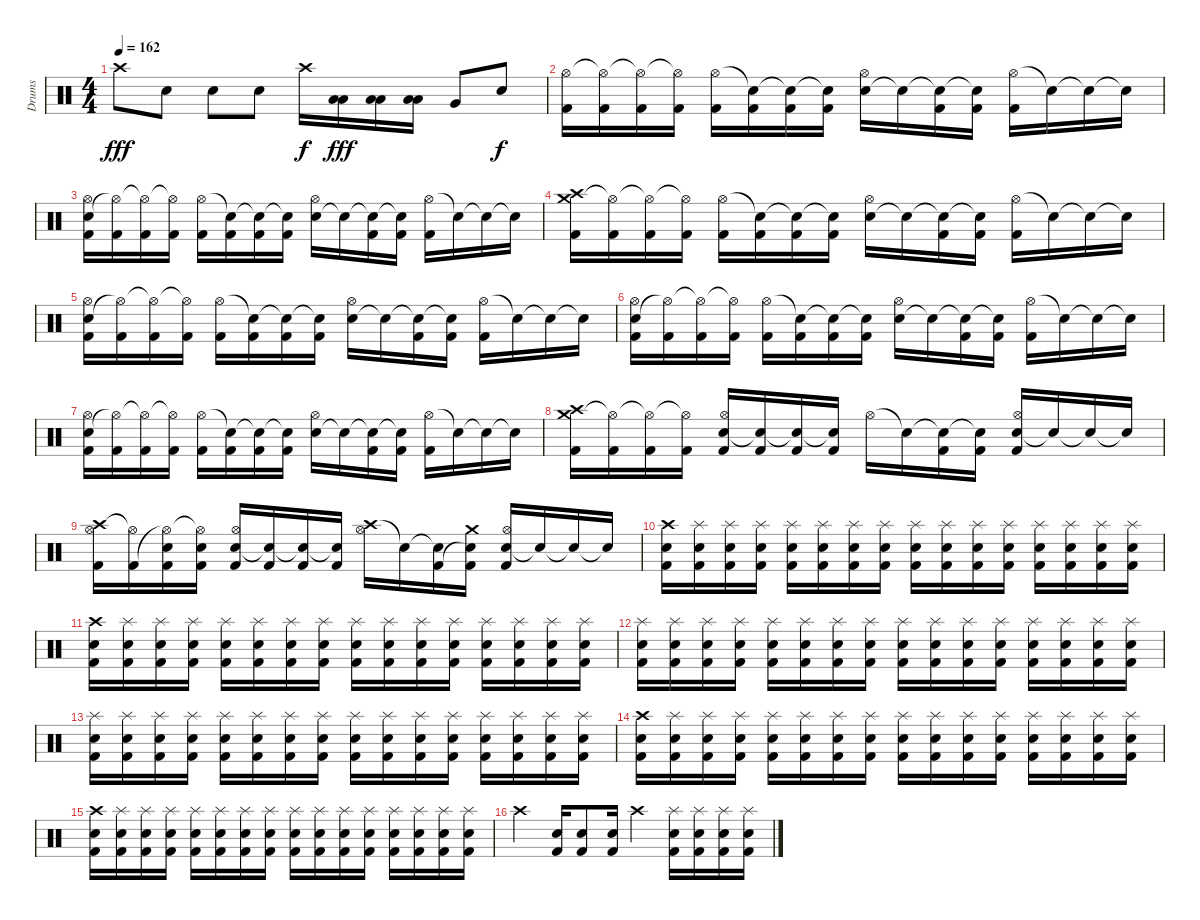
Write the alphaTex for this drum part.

\track ("Drums" "Drums") {instrument percussion}
\staff {score}
\articulation defaults
\ts (4 4)
\tempo 162
\clef neutral
\ks c "Crash high (hit)".8{dy fff} "Electric Snare (hit)".8 "Electric Snare (hit)".8 "Electric Snare (hit)".8 "Crash high (hit)".16{dy f}
("Low Tom (hit)" "Low Tom (hit)").16{dy fff} ("Low Tom (hit)" "Low Tom (hit)").16 ("Low Tom (hit)" "Low Tom (hit)").16 "Very Low Tom (hit)".8 "Electric Snare (hit)".8{dy f} |
("Hi-Hat (open)" "Kick (hit) 2").16 ("Hi-Hat (open)"{t} "Kick (hit) 2").16 ("Hi-Hat (open)"{t} "Kick (hit) 2").16 ("Hi-Hat (open)"{t} "Kick (hit) 2").16 ("Hi-Hat (open)" "Kick (hit) 2").16 ("Snare (hit)"{t} "Kick (hit) 2").16 ("Snare (hit)"{t} "Kick (hit) 2").16 ("Snare (hit)"{t} "Kick (hit) 2").16 ("Electric Snare (hit)" "Hi-Hat (open)").16 "Snare (hit)"{t}.16 ("Snare (hit)"{t} "Kick (hit) 2").16 ("Snare (hit)"{t} "Kick (hit) 2").16 ("Hi-Hat (open)" "Kick (hit) 2").16 "Snare (hit)"{t}.16 "Snare (hit)"{t}.16 "Snare (hit)"{t}.16 |
("Electric Snare (hit)" "Hi-Hat (open)" "Kick (hit) 2").16 ("Hi-Hat (open)"{t} "Kick (hit) 2").16 ("Hi-Hat (open)"{t} "Kick (hit) 2").16 ("Hi-Hat (open)"{t} "Kick (hit) 2").16 ("Hi-Hat (open)" "Kick (hit) 2").16 ("Snare (hit)"{t} "Kick (hit) 2").16 ("Snare (hit)"{t} "Kick (hit) 2").16 ("Snare (hit)"{t} "Kick (hit) 2").16 ("Electric Snare (hit)" "Hi-Hat (open)").16 "Snare (hit)"{t}.16 ("Snare (hit)"{t} "Kick (hit) 2").16 ("Snare (hit)"{t} "Kick (hit) 2").16 ("Hi-Hat (open)" "Kick (hit) 2").16 "Snare (hit)"{t}.16 "Snare (hit)"{t}.16 "Snare (hit)"{t}.16 |
("Crash medium (hit)" "Crash high (hit)" "Kick (hit) 2").16 ("Hi-Hat (open)"{t} "Kick (hit) 2").16 ("Hi-Hat (open)"{t} "Kick (hit) 2").16 ("Hi-Hat (open)"{t} "Kick (hit) 2").16 ("Hi-Hat (open)" "Kick (hit) 2").16 ("Snare (hit)"{t} "Kick (hit) 2").16 ("Snare (hit)"{t} "Kick (hit) 2").16 ("Snare (hit)"{t} "Kick (hit) 2").16 ("Electric Snare (hit)" "Hi-Hat (open)").16 "Snare (hit)"{t}.16 ("Snare (hit)"{t} "Kick (hit) 2").16 ("Snare (hit)"{t} "Kick (hit) 2").16 ("Hi-Hat (open)" "Kick (hit) 2").16 "Snare (hit)"{t}.16 "Snare (hit)"{t}.16 "Snare (hit)"{t}.16 |
("Electric Snare (hit)" "Hi-Hat (open)" "Kick (hit) 2").16 ("Hi-Hat (open)"{t} "Kick (hit) 2").16 ("Hi-Hat (open)"{t} "Kick (hit) 2").16 ("Hi-Hat (open)"{t} "Kick (hit) 2").16 ("Hi-Hat (open)" "Kick (hit) 2").16 ("Snare (hit)"{t} "Kick (hit) 2").16 ("Snare (hit)"{t} "Kick (hit) 2").16 ("Snare (hit)"{t} "Kick (hit) 2").16 ("Electric Snare (hit)" "Hi-Hat (open)").16 "Snare (hit)"{t}.16 ("Snare (hit)"{t} "Kick (hit) 2").16 ("Snare (hit)"{t} "Kick (hit) 2").16 ("Hi-Hat (open)" "Kick (hit) 2").16 "Snare (hit)"{t}.16 "Snare (hit)"{t}.16 "Snare (hit)"{t}.16 |
("Electric Snare (hit)" "Hi-Hat (open)" "Kick (hit) 2").16 ("Hi-Hat (open)"{t} "Kick (hit) 2").16 ("Hi-Hat (open)"{t} "Kick (hit) 2").16 ("Hi-Hat (open)"{t} "Kick (hit) 2").16 ("Hi-Hat (open)" "Kick (hit) 2").16 ("Snare (hit)"{t} "Kick (hit) 2").16 ("Snare (hit)"{t} "Kick (hit) 2").16 ("Snare (hit)"{t} "Kick (hit) 2").16 ("Electric Snare (hit)" "Hi-Hat (open)").16 "Snare (hit)"{t}.16 ("Snare (hit)"{t} "Kick (hit) 2").16 ("Snare (hit)"{t} "Kick (hit) 2").16 ("Hi-Hat (open)" "Kick (hit) 2").16 "Snare (hit)"{t}.16 "Snare (hit)"{t}.16 "Snare (hit)"{t}.16 |
("Electric Snare (hit)" "Hi-Hat (open)" "Kick (hit) 2").16 ("Hi-Hat (open)"{t} "Kick (hit) 2").16 ("Hi-Hat (open)"{t} "Kick (hit) 2").16 ("Hi-Hat (open)"{t} "Kick (hit) 2").16 ("Hi-Hat (open)" "Kick (hit) 2").16 ("Snare (hit)"{t} "Kick (hit) 2").16 ("Snare (hit)"{t} "Kick (hit) 2").16 ("Snare (hit)"{t} "Kick (hit) 2").16 ("Electric Snare (hit)" "Hi-Hat (open)").16 "Snare (hit)"{t}.16 ("Snare (hit)"{t} "Kick (hit) 2").16 ("Snare (hit)"{t} "Kick (hit) 2").16 ("Hi-Hat (open)" "Kick (hit) 2").16 "Snare (hit)"{t}.16 "Snare (hit)"{t}.16 "Snare (hit)"{t}.16 |
("Crash medium (hit)" "Crash high (hit)" "Kick (hit) 2").16 ("Hi-Hat (open)"{t} "Kick (hit) 2").16 ("Hi-Hat (open)"{t} "Kick (hit) 2").16 ("Hi-Hat (open)"{t} "Kick (hit) 2").16 ("Electric Snare (hit)" "Hi-Hat (open)" "Kick (hit) 2").16 ("Snare (hit)"{t} "Kick (hit) 2").16 ("Snare (hit)"{t} "Kick (hit) 2").16 ("Snare (hit)"{t} "Kick (hit) 2").16 "Hi-Hat (open)".16 "Snare (hit)"{t}.16 ("Snare (hit)"{t} "Kick (hit) 2").16 ("Snare (hit)"{t} "Kick (hit) 2").16 ("Electric Snare (hit)" "Hi-Hat (open)" "Kick (hit) 2").16 "Snare (hit)"{t}.16 "Snare (hit)"{t}.16 "Snare (hit)"{t}.16 |
("Crash high (hit)" "Hi-Hat (open)" "Kick (hit) 2").16 ("Hi-Hat (open)"{t} "Kick (hit) 2").16 ("Electric Snare (hit)" "Hi-Hat (open)"{t} "Kick (hit) 2").16 ("Electric Snare (hit)" "Hi-Hat (open)"{t} "Kick (hit) 2").16 ("Electric Snare (hit)" "Hi-Hat (open)" "Kick (hit) 2").16 ("Snare (hit)"{t} "Kick (hit) 2").16 ("Snare (hit)"{t} "Kick (hit) 2").16 ("Snare (hit)"{t} "Kick (hit) 2").16 ("Crash high (hit)" "Hi-Hat (open)").16 "Snare (hit)"{t}.16 ("Snare (hit)"{t} "Kick (hit) 2").16 ("Crash medium (hit)" "Snare (hit)"{t} "Kick (hit) 2").16 ("Electric Snare (hit)" "Hi-Hat (open)" "Kick (hit) 2").16 "Snare (hit)"{t}.16 "Snare (hit)"{t}.16 "Snare (hit)"{t}.16 |
("Crash high (hit)" "Electric Snare (hit)" "Kick (hit) 2").16 ("Splash (hit)" "Electric Snare (hit)" "Kick (hit) 2").16 ("Splash (hit)" "Electric Snare (hit)" "Kick (hit) 2").16 ("Splash (hit)" "Electric Snare (hit)" "Kick (hit) 2").16 ("Splash (hit)" "Electric Snare (hit)" "Kick (hit) 2").16 ("Splash (hit)" "Electric Snare (hit)" "Kick (hit) 2").16 ("Splash (hit)" "Electric Snare (hit)" "Kick (hit) 2").16 ("Splash (hit)" "Electric Snare (hit)" "Kick (hit) 2").16 ("Splash (hit)" "Electric Snare (hit)" "Kick (hit) 2").16 ("Splash (hit)" "Electric Snare (hit)" "Kick (hit) 2").16 ("Splash (hit)" "Electric Snare (hit)" "Kick (hit) 2").16 ("Splash (hit)" "Electric Snare (hit)" "Kick (hit) 2").16 ("Splash (hit)" "Electric Snare (hit)" "Kick (hit) 2").16 ("Splash (hit)" "Electric Snare (hit)" "Kick (hit) 2").16 ("Splash (hit)" "Electric Snare (hit)" "Kick (hit) 2").16 ("Splash (hit)" "Electric Snare (hit)" "Kick (hit) 2").16 |
("Crash high (hit)" "Electric Snare (hit)" "Kick (hit) 2").16 ("Splash (hit)" "Electric Snare (hit)" "Kick (hit) 2").16 ("Splash (hit)" "Electric Snare (hit)" "Kick (hit) 2").16 ("Splash (hit)" "Electric Snare (hit)" "Kick (hit) 2").16 ("Splash (hit)" "Electric Snare (hit)" "Kick (hit) 2").16 ("Splash (hit)" "Electric Snare (hit)" "Kick (hit) 2").16 ("Splash (hit)" "Electric Snare (hit)" "Kick (hit) 2").16 ("Splash (hit)" "Electric Snare (hit)" "Kick (hit) 2").16 ("Splash (hit)" "Electric Snare (hit)" "Kick (hit) 2").16 ("Splash (hit)" "Electric Snare (hit)" "Kick (hit) 2").16 ("Splash (hit)" "Electric Snare (hit)" "Kick (hit) 2").16 ("Splash (hit)" "Electric Snare (hit)" "Kick (hit) 2").16 ("Splash (hit)" "Electric Snare (hit)" "Kick (hit) 2").16 ("Splash (hit)" "Electric Snare (hit)" "Kick (hit) 2").16 ("Splash (hit)" "Electric Snare (hit)" "Kick (hit) 2").16 ("Splash (hit)" "Electric Snare (hit)" "Kick (hit) 2").16 |
("Splash (hit)" "Electric Snare (hit)" "Kick (hit) 2").16 ("Splash (hit)" "Electric Snare (hit)" "Kick (hit) 2").16 ("Splash (hit)" "Electric Snare (hit)" "Kick (hit) 2").16 ("Splash (hit)" "Electric Snare (hit)" "Kick (hit) 2").16 ("Splash (hit)" "Electric Snare (hit)" "Kick (hit) 2").16 ("Splash (hit)" "Electric Snare (hit)" "Kick (hit) 2").16 ("Splash (hit)" "Electric Snare (hit)" "Kick (hit) 2").16 ("Splash (hit)" "Electric Snare (hit)" "Kick (hit) 2").16 ("Splash (hit)" "Electric Snare (hit)" "Kick (hit) 2").16 ("Splash (hit)" "Electric Snare (hit)" "Kick (hit) 2").16 ("Splash (hit)" "Electric Snare (hit)" "Kick (hit) 2").16 ("Splash (hit)" "Electric Snare (hit)" "Kick (hit) 2").16 ("Splash (hit)" "Electric Snare (hit)" "Kick (hit) 2").16 ("Splash (hit)" "Electric Snare (hit)" "Kick (hit) 2").16 ("Splash (hit)" "Electric Snare (hit)" "Kick (hit) 2").16 ("Splash (hit)" "Electric Snare (hit)" "Kick (hit) 2").16 |
("Splash (hit)" "Electric Snare (hit)" "Kick (hit) 2").16 ("Splash (hit)" "Electric Snare (hit)" "Kick (hit) 2").16 ("Splash (hit)" "Electric Snare (hit)" "Kick (hit) 2").16 ("Splash (hit)" "Electric Snare (hit)" "Kick (hit) 2").16 ("Splash (hit)" "Electric Snare (hit)" "Kick (hit) 2").16 ("Splash (hit)" "Electric Snare (hit)" "Kick (hit) 2").16 ("Splash (hit)" "Electric Snare (hit)" "Kick (hit) 2").16 ("Splash (hit)" "Electric Snare (hit)" "Kick (hit) 2").16 ("Splash (hit)" "Electric Snare (hit)" "Kick (hit) 2").16 ("Splash (hit)" "Electric Snare (hit)" "Kick (hit) 2").16 ("Splash (hit)" "Electric Snare (hit)" "Kick (hit) 2").16 ("Splash (hit)" "Electric Snare (hit)" "Kick (hit) 2").16 ("Splash (hit)" "Electric Snare (hit)" "Kick (hit) 2").16 ("Splash (hit)" "Electric Snare (hit)" "Kick (hit) 2").16 ("Splash (hit)" "Electric Snare (hit)" "Kick (hit) 2").16 ("Splash (hit)" "Electric Snare (hit)" "Kick (hit) 2").16 |
("Crash high (hit)" "Electric Snare (hit)" "Kick (hit) 2").16 ("Splash (hit)" "Electric Snare (hit)" "Kick (hit) 2").16 ("Splash (hit)" "Electric Snare (hit)" "Kick (hit) 2").16 ("Splash (hit)" "Electric Snare (hit)" "Kick (hit) 2").16 ("Splash (hit)" "Electric Snare (hit)" "Kick (hit) 2").16 ("Splash (hit)" "Electric Snare (hit)" "Kick (hit) 2").16 ("Splash (hit)" "Electric Snare (hit)" "Kick (hit) 2").16 ("Splash (hit)" "Electric Snare (hit)" "Kick (hit) 2").16 ("Splash (hit)" "Electric Snare (hit)" "Kick (hit) 2").16 ("Splash (hit)" "Electric Snare (hit)" "Kick (hit) 2").16 ("Splash (hit)" "Electric Snare (hit)" "Kick (hit) 2").16 ("Splash (hit)" "Electric Snare (hit)" "Kick (hit) 2").16 ("Splash (hit)" "Electric Snare (hit)" "Kick (hit) 2").16 ("Splash (hit)" "Electric Snare (hit)" "Kick (hit) 2").16 ("Splash (hit)" "Electric Snare (hit)" "Kick (hit) 2").16 ("Splash (hit)" "Electric Snare (hit)" "Kick (hit) 2").16 |
("Crash high (hit)" "Electric Snare (hit)" "Kick (hit) 2").16 ("Splash (hit)" "Electric Snare (hit)" "Kick (hit) 2").16 ("Splash (hit)" "Electric Snare (hit)" "Kick (hit) 2").16 ("Splash (hit)" "Electric Snare (hit)" "Kick (hit) 2").16 ("Splash (hit)" "Electric Snare (hit)" "Kick (hit) 2").16 ("Splash (hit)" "Electric Snare (hit)" "Kick (hit) 2").16 ("Splash (hit)" "Electric Snare (hit)" "Kick (hit) 2").16 ("Splash (hit)" "Electric Snare (hit)" "Kick (hit) 2").16 ("Splash (hit)" "Electric Snare (hit)" "Kick (hit) 2").16 ("Splash (hit)" "Electric Snare (hit)" "Kick (hit) 2").16 ("Splash (hit)" "Electric Snare (hit)" "Kick (hit) 2").16 ("Splash (hit)" "Electric Snare (hit)" "Kick (hit) 2").16 ("Splash (hit)" "Electric Snare (hit)" "Kick (hit) 2").16 ("Splash (hit)" "Electric Snare (hit)" "Kick (hit) 2").16 ("Splash (hit)" "Electric Snare (hit)" "Kick (hit) 2").16 ("Splash (hit)" "Electric Snare (hit)" "Kick (hit) 2").16 |
"Crash high (hit)".4 ("Electric Snare (hit)" "Kick (hit) 2").16 ("Electric Snare (hit)" "Kick (hit) 2").8 ("Electric Snare (hit)" "Kick (hit) 2").16 "Crash high (hit)".4 ("Splash (hit)" "Electric Snare (hit)" "Kick (hit) 2").16 ("Splash (hit)" "Electric Snare (hit)" "Kick (hit) 2").16 ("Splash (hit)" "Electric Snare (hit)" "Kick (hit) 2").16 ("Splash (hit)" "Electric Snare (hit)" "Kick (hit) 2").16
